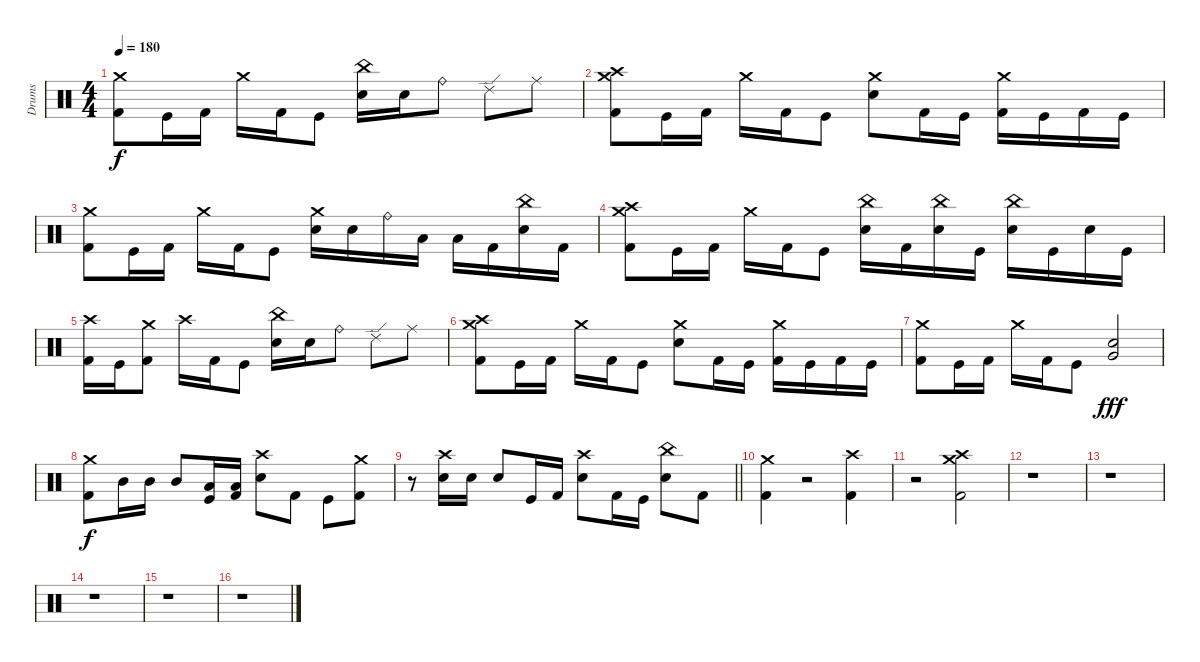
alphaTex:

\track ("Drums" "Drums") {instrument percussion}
\staff {score}
\articulation defaults
\ts (4 4)
\tempo 180
\clef neutral
\ks c
("Crash medium (hit)" "Kick (hit) 2").8{dy f} "Kick (hit)".16 "Kick (hit) 2".16 "Crash medium (hit)".16 "Kick (hit) 2".16 "Kick (hit)".8 ("China (hit)" "Electric Snare (hit)").16 "Electric Snare (hit)".16 "Ride (bell)".8 "Ride (edge) 2".8 "Ride (middle)".8 |
("Crash medium (hit)" "Crash high (hit)" "Kick (hit) 2").8 "Kick (hit)".16 "Kick (hit) 2".16 "Crash medium (hit)".16 "Kick (hit) 2".16 "Kick (hit)".8 ("Crash medium (hit)" "Electric Snare (hit)").8 "Kick (hit) 2".16 "Kick (hit)".16 ("Crash medium (hit)" "Kick (hit) 2").16 "Kick (hit)".16 "Kick (hit) 2".16 "Kick (hit)".16 |
("Crash medium (hit)" "Kick (hit) 2").8 "Kick (hit)".16 "Kick (hit) 2".16 "Crash medium (hit)".16 "Kick (hit) 2".16 "Kick (hit)".8 ("Crash medium (hit)" "Electric Snare (hit)").16 "Electric Snare (hit)".16 "Ride (bell)".16 "Low Tom (hit)".16 "Low Tom (hit)".16 "Kick (hit) 2".16 ("China (hit)" "Electric Snare (hit)").16 "Kick (hit) 2".16 |
("Crash medium (hit)" "Crash high (hit)" "Kick (hit) 2").8 "Kick (hit)".16 "Kick (hit) 2".16 "Crash medium (hit)".16 "Kick (hit) 2".16 "Kick (hit)".8 ("China (hit)" "Electric Snare (hit)").16 "Kick (hit) 2".16 ("China (hit)" "Electric Snare (hit)").16 "Kick (hit)".16 ("China (hit)" "Electric Snare (hit)").16 "Kick (hit)".16 "Electric Snare (hit)".16 "Kick (hit)".16 |
("Crash high (hit)" "Kick (hit) 2").16 "Kick (hit)".16 ("Crash medium (hit)" "Kick (hit) 2").8 "Crash high (hit)".16 "Kick (hit) 2".16 "Kick (hit)".8 ("China (hit)" "Electric Snare (hit)").16 "Electric Snare (hit)".16 "Ride (bell)".8 "Ride (edge) 2".8 "Ride (middle)".8 |
("Crash medium (hit)" "Crash high (hit)" "Kick (hit) 2").8 "Kick (hit)".16 "Kick (hit) 2".16 "Crash medium (hit)".16 "Kick (hit) 2".16 "Kick (hit)".8 ("Crash medium (hit)" "Electric Snare (hit)").8 "Kick (hit) 2".16 "Kick (hit)".16 ("Crash medium (hit)" "Kick (hit) 2").16 "Kick (hit)".16 "Kick (hit) 2".16 "Kick (hit)".16 |
("Crash medium (hit)" "Kick (hit) 2").8 "Kick (hit)".16 "Kick (hit) 2".16 "Crash medium (hit)".16 "Kick (hit) 2".16 "Kick (hit)".8 ("Electric Snare (hit)" "Very Low Tom (hit)").2{dy fff} |
("Crash medium (hit)" "Kick (hit) 2").8{dy f} "Mid Tom (hit)".16 "Mid Tom (hit)".16 "Mid Tom (hit)".8 ("Low Tom (hit)" "Kick (hit)").16 ("Low Tom (hit)" "Kick (hit) 2").16 ("Crash high (hit)" "Electric Snare (hit)").8 "Kick (hit) 2".8 "Kick (hit)".8 ("Crash medium (hit)" "Kick (hit) 2").8 |
\barLineRight lightlight
r.8 ("Crash high (hit)" "Electric Snare (hit)").16 "Electric Snare (hit)".16 "Electric Snare (hit)".8 "Kick (hit)".16 "Kick (hit) 2".16 ("Crash high (hit)" "Electric Snare (hit)").8 "Kick (hit) 2".16 "Kick (hit)".16 ("China (hit)" "Electric Snare (hit)").8 "Kick (hit) 2".8 |
("Crash medium (hit)" "Kick (hit) 2").4 r.2 ("Crash high (hit)" "Kick (hit) 2").4 |
r.2 ("Crash medium (hit)" "Crash high (hit)" "Kick (hit) 2").2 |
r.1 |
r.1 |
r.1 |
r.1 |
r.1
